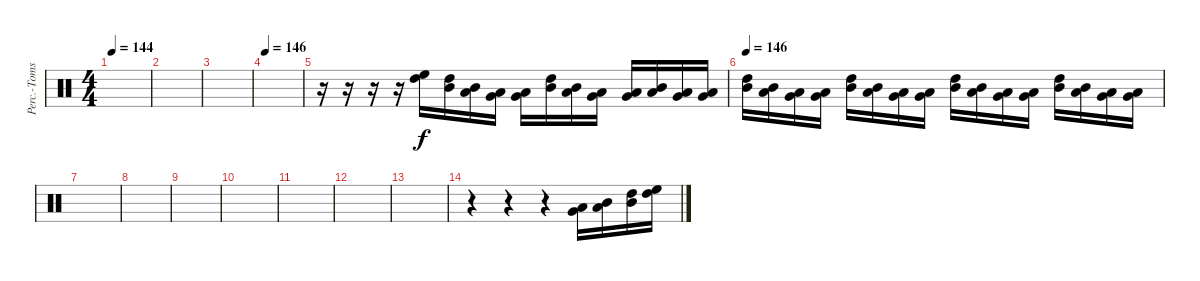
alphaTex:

\track ("Perc.-Toms 1" "Perc.-Toms") {instrument percussion}
\staff {score}
\articulation defaults
\ts (4 4)
\tempo 144
\clef neutral
\ks c
|
|
|
\tempo 146
|
r.16 r.16 r.16 r.16 ("High Floor Tom (hit)" "High Tom (hit)").16 ("High Tom (hit)" "Mid Tom (hit)").16 ("Mid Tom (hit)" "Low Tom (hit)").16 ("Low Tom (hit)" "Very Low Tom (hit)").16 ("Very Low Tom (hit)" "Low Floor Tom (hit)").16 ("High Tom (hit)" "Mid Tom (hit)").16 ("Mid Tom (hit)" "Low Tom (hit)").16 ("Low Tom (hit)" "Very Low Tom (hit)").16 ("Very Low Tom (hit)" "Low Floor Tom (hit)").16 ("Mid Tom (hit)" "Low Tom (hit)").16 ("Low Tom (hit)" "Very Low Tom (hit)").16 ("Very Low Tom (hit)" "Low Floor Tom (hit)").16 |
\tempo 146
("High Tom (hit)" "Mid Tom (hit)").16 ("Mid Tom (hit)" "Low Tom (hit)").16 ("Low Tom (hit)" "Very Low Tom (hit)").16 ("Very Low Tom (hit)" "Low Floor Tom (hit)").16 ("High Tom (hit)" "Mid Tom (hit)").16 ("Mid Tom (hit)" "Low Tom (hit)").16 ("Low Tom (hit)" "Very Low Tom (hit)").16 ("Very Low Tom (hit)" "Low Floor Tom (hit)").16 ("High Tom (hit)" "Mid Tom (hit)").16 ("Mid Tom (hit)" "Low Tom (hit)").16 ("Low Tom (hit)" "Very Low Tom (hit)").16 ("Very Low Tom (hit)" "Low Floor Tom (hit)").16 ("High Tom (hit)" "Mid Tom (hit)").16 ("Mid Tom (hit)" "Low Tom (hit)").16 ("Low Tom (hit)" "Very Low Tom (hit)").16 ("Very Low Tom (hit)" "Low Floor Tom (hit)").16 |
|
|
|
|
|
|
|
r.4 r.4 r.4 ("Low Tom (hit)" "Very Low Tom (hit)").16 ("Mid Tom (hit)" "Low Tom (hit)").16 ("High Tom (hit)" "Mid Tom (hit)").16 ("High Floor Tom (hit)" "High Tom (hit)").16
